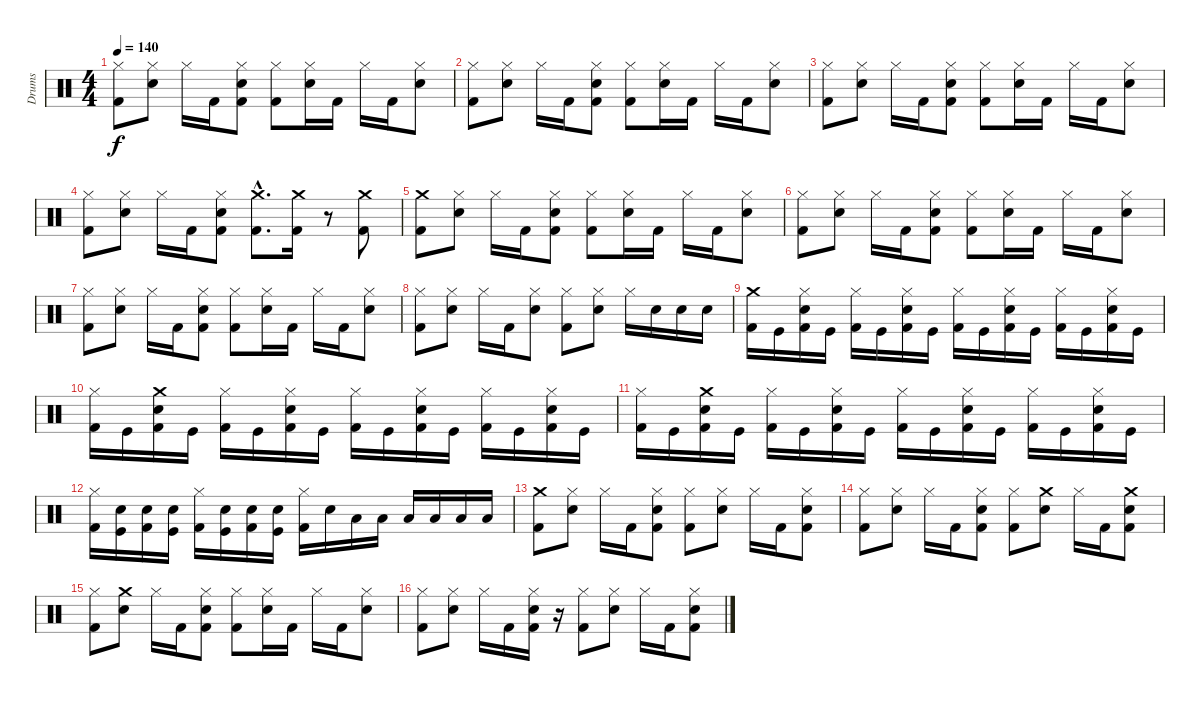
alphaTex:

\track ("Drums" "Drums") {instrument percussion}
\staff {score}
\articulation defaults
\ts (4 4)
\tempo 140
\clef neutral
\ks c
("Hi-Hat (closed)" "Kick (hit) 2").8{dy f} ("Snare (hit) 2" "Hi-Hat (closed)").8 "Hi-Hat (closed)".16 "Kick (hit) 2".16 ("Kick (hit) 2" "Snare (hit) 2" "Hi-Hat (closed)").8 ("Kick (hit) 2" "Hi-Hat (closed)").8 ("Snare (hit) 2" "Hi-Hat (closed)").16 "Kick (hit) 2".16 "Hi-Hat (closed)".16 "Kick (hit) 2".16 ("Snare (hit) 2" "Hi-Hat (closed)").8 |
("Hi-Hat (closed)" "Kick (hit) 2").8 ("Snare (hit) 2" "Hi-Hat (closed)").8 "Hi-Hat (closed)".16 "Kick (hit) 2".16 ("Kick (hit) 2" "Snare (hit) 2" "Hi-Hat (closed)").8 ("Kick (hit) 2" "Hi-Hat (closed)").8 ("Snare (hit) 2" "Hi-Hat (closed)").16 "Kick (hit) 2".16 "Hi-Hat (closed)".16 "Kick (hit) 2".16 ("Snare (hit) 2" "Hi-Hat (closed)").8 |
("Hi-Hat (closed)" "Kick (hit) 2").8 ("Snare (hit) 2" "Hi-Hat (closed)").8 "Hi-Hat (closed)".16 "Kick (hit) 2".16 ("Kick (hit) 2" "Snare (hit) 2" "Hi-Hat (closed)").8 ("Kick (hit) 2" "Hi-Hat (closed)").8 ("Snare (hit) 2" "Hi-Hat (closed)").16 "Kick (hit) 2".16 "Hi-Hat (closed)".16 "Kick (hit) 2".16 ("Snare (hit) 2" "Hi-Hat (closed)").8 |
("Hi-Hat (closed)" "Kick (hit) 2").8 ("Snare (hit) 2" "Hi-Hat (closed)").8 "Hi-Hat (closed)".16 "Kick (hit) 2".16 ("Kick (hit) 2" "Snare (hit) 2" "Hi-Hat (closed)").8 ("Kick (hit) 2"{hac} "Crash medium (hit)"{hac}).8{d} ("Kick (hit) 2" "Crash medium (hit)").16 r.8 ("Kick (hit) 2" "Crash medium (hit)").8 |
("Crash medium (hit)" "Kick (hit) 2").8 ("Snare (hit) 2" "Hi-Hat (closed)").8 "Hi-Hat (closed)".16 "Kick (hit) 2".16 ("Kick (hit) 2" "Snare (hit) 2" "Hi-Hat (closed)").8 ("Kick (hit) 2" "Hi-Hat (closed)").8 ("Snare (hit) 2" "Hi-Hat (closed)").16 "Kick (hit) 2".16 "Hi-Hat (closed)".16 "Kick (hit) 2".16 ("Snare (hit) 2" "Hi-Hat (closed)").8 |
("Hi-Hat (closed)" "Kick (hit) 2").8 ("Snare (hit) 2" "Hi-Hat (closed)").8 "Hi-Hat (closed)".16 "Kick (hit) 2".16 ("Kick (hit) 2" "Snare (hit) 2" "Hi-Hat (closed)").8 ("Kick (hit) 2" "Hi-Hat (closed)").8 ("Snare (hit) 2" "Hi-Hat (closed)").16 "Kick (hit) 2".16 "Hi-Hat (closed)".16 "Kick (hit) 2".16 ("Snare (hit) 2" "Hi-Hat (closed)").8 |
("Hi-Hat (closed)" "Kick (hit) 2").8 ("Snare (hit) 2" "Hi-Hat (closed)").8 "Hi-Hat (closed)".16 "Kick (hit) 2".16 ("Kick (hit) 2" "Snare (hit) 2" "Hi-Hat (closed)").8 ("Kick (hit) 2" "Hi-Hat (closed)").8 ("Snare (hit) 2" "Hi-Hat (closed)").16 "Kick (hit) 2".16 "Hi-Hat (closed)".16 "Kick (hit) 2".16 ("Snare (hit) 2" "Hi-Hat (closed)").8 |
("Hi-Hat (closed)" "Kick (hit) 2").8 ("Snare (hit) 2" "Hi-Hat (closed)").8 "Hi-Hat (closed)".16 "Kick (hit) 2".16 ("Snare (hit) 2" "Hi-Hat (closed)").8 ("Hi-Hat (closed)" "Kick (hit) 2").8 ("Hi-Hat (closed)" "Snare (hit) 2").8 "Hi-Hat (closed)".16 "Snare (hit) 2".16 "Snare (hit) 2".16 "Snare (hit) 2".16 |
("Crash medium (hit)" "Kick (hit) 2").16 "Kick (hit)".16 ("Snare (hit) 2" "Hi-Hat (closed)" "Kick (hit) 2").16 "Kick (hit)".16 ("Hi-Hat (closed)" "Kick (hit) 2").16 "Kick (hit)".16 ("Snare (hit) 2" "Hi-Hat (closed)" "Kick (hit) 2").16 "Kick (hit)".16 ("Hi-Hat (closed)" "Kick (hit) 2").16 "Kick (hit)".16 ("Snare (hit) 2" "Hi-Hat (closed)" "Kick (hit) 2").16 "Kick (hit)".16 ("Hi-Hat (closed)" "Kick (hit) 2").16 "Kick (hit)".16 ("Snare (hit) 2" "Hi-Hat (closed)" "Kick (hit) 2").16 "Kick (hit)".16 |
("Hi-Hat (closed)" "Kick (hit) 2").16 "Kick (hit)".16 ("Crash medium (hit)" "Snare (hit) 2" "Kick (hit) 2").16 "Kick (hit)".16 ("Hi-Hat (closed)" "Kick (hit) 2").16 "Kick (hit)".16 ("Snare (hit) 2" "Hi-Hat (closed)" "Kick (hit) 2").16 "Kick (hit)".16 ("Hi-Hat (closed)" "Kick (hit) 2").16 "Kick (hit)".16 ("Snare (hit) 2" "Hi-Hat (closed)" "Kick (hit) 2").16 "Kick (hit)".16 ("Hi-Hat (closed)" "Kick (hit) 2").16 "Kick (hit)".16 ("Snare (hit) 2" "Hi-Hat (closed)" "Kick (hit) 2").16 "Kick (hit)".16 |
("Hi-Hat (closed)" "Kick (hit) 2").16 "Kick (hit)".16 ("Crash medium (hit)" "Snare (hit) 2" "Kick (hit) 2").16 "Kick (hit)".16 ("Hi-Hat (closed)" "Kick (hit) 2").16 "Kick (hit)".16 ("Snare (hit) 2" "Hi-Hat (closed)" "Kick (hit) 2").16 "Kick (hit)".16 ("Hi-Hat (closed)" "Kick (hit) 2").16 "Kick (hit)".16 ("Snare (hit) 2" "Hi-Hat (closed)" "Kick (hit) 2").16 "Kick (hit)".16 ("Hi-Hat (closed)" "Kick (hit) 2").16 "Kick (hit)".16 ("Snare (hit) 2" "Hi-Hat (closed)" "Kick (hit) 2").16 "Kick (hit)".16 |
("Hi-Hat (closed)" "Kick (hit) 2").16 ("Snare (hit) 2" "Kick (hit)").16 ("Snare (hit) 2" "Kick (hit) 2").16 ("Snare (hit) 2" "Kick (hit)").16 ("Hi-Hat (closed)" "Kick (hit) 2").16 ("Snare (hit) 2" "Kick (hit)").16 ("Snare (hit) 2" "Kick (hit) 2").16 ("Snare (hit) 2" "Kick (hit)").16 ("Hi-Hat (closed)" "Kick (hit) 2").16 "Snare (hit) 2".16 "Low Tom (hit)".16 "Low Tom (hit)".16 "Low Tom (hit)".16 "Low Tom (hit)".16 "Low Tom (hit)".16 "Low Tom (hit)".16 |
("Crash medium (hit)" "Kick (hit) 2").8 ("Snare (hit) 2" "Hi-Hat (closed)").8 "Hi-Hat (closed)".16 "Kick (hit) 2".16 ("Kick (hit) 2" "Snare (hit) 2" "Hi-Hat (closed)").8 ("Hi-Hat (closed)" "Kick (hit) 2").8 ("Snare (hit) 2" "Hi-Hat (closed)").8 "Hi-Hat (closed)".16 "Kick (hit) 2".16 ("Snare (hit) 2" "Hi-Hat (closed)" "Kick (hit) 2").8 |
("Hi-Hat (closed)" "Kick (hit) 2").8 ("Snare (hit) 2" "Hi-Hat (closed)").8 "Hi-Hat (closed)".16 "Kick (hit) 2".16 ("Snare (hit) 2" "Hi-Hat (closed)" "Kick (hit) 2").8 ("Hi-Hat (closed)" "Kick (hit) 2").8 ("Crash medium (hit)" "Snare (hit) 2").8 "Hi-Hat (closed)".16 "Kick (hit) 2".16 ("Crash medium (hit)" "Snare (hit) 2" "Kick (hit) 2").8 |
("Hi-Hat (closed)" "Kick (hit) 2").8 ("Crash medium (hit)" "Snare (hit) 2").8 "Hi-Hat (closed)".16 "Kick (hit) 2".16 ("Hi-Hat (closed)" "Snare (hit) 2" "Kick (hit) 2").8 ("Hi-Hat (closed)" "Kick (hit) 2").8 ("Hi-Hat (closed)" "Snare (hit) 2").16 "Kick (hit) 2".16 "Hi-Hat (closed)".16 "Kick (hit) 2".16 ("Hi-Hat (closed)" "Snare (hit) 2").8 |
("Hi-Hat (closed)" "Kick (hit) 2").8 ("Snare (hit) 2" "Hi-Hat (closed)").8 "Hi-Hat (closed)".16 "Kick (hit) 2".16 ("Kick (hit) 2" "Snare (hit) 2" "Hi-Hat (closed)").16 r.16 ("Hi-Hat (closed)" "Kick (hit) 2").8 ("Snare (hit) 2" "Hi-Hat (closed)").8 "Hi-Hat (closed)".16 "Kick (hit) 2".16 ("Snare (hit) 2" "Hi-Hat (closed)" "Kick (hit) 2").8
